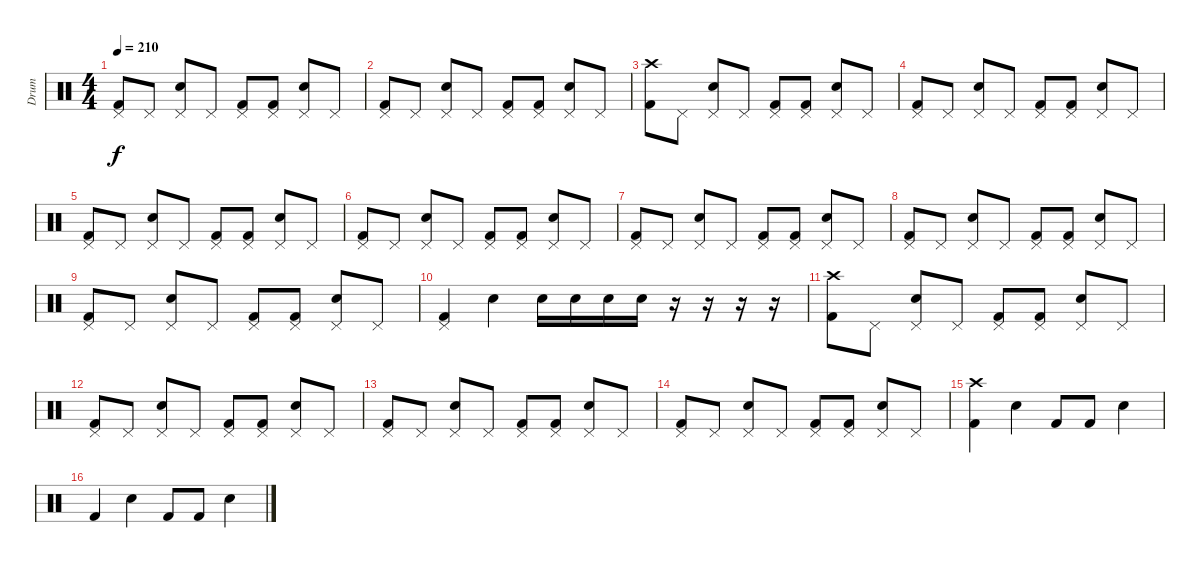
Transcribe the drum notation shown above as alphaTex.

\track ("Drum" "Drum") {instrument percussion}
\staff {score}
\articulation defaults
\ts (4 4)
\tempo 210
\clef neutral
\ks c
("Pedal Hi-Hat (hit)" "Kick (hit) 2").8{dy f} "Pedal Hi-Hat (hit)".8 ("Pedal Hi-Hat (hit)" "Snare (hit) 2").8 "Pedal Hi-Hat (hit)".8 ("Pedal Hi-Hat (hit)" "Kick (hit) 2").8 ("Pedal Hi-Hat (hit)" "Kick (hit) 2").8 ("Pedal Hi-Hat (hit)" "Snare (hit) 2").8 "Pedal Hi-Hat (hit)".8 |
("Pedal Hi-Hat (hit)" "Kick (hit) 2").8 "Pedal Hi-Hat (hit)".8 ("Pedal Hi-Hat (hit)" "Snare (hit) 2").8 "Pedal Hi-Hat (hit)".8 ("Pedal Hi-Hat (hit)" "Kick (hit) 2").8 ("Pedal Hi-Hat (hit)" "Kick (hit) 2").8 ("Pedal Hi-Hat (hit)" "Snare (hit) 2").8 "Pedal Hi-Hat (hit)".8 |
("Crash high (hit)" "Kick (hit) 2").8 "Pedal Hi-Hat (hit)".8 ("Pedal Hi-Hat (hit)" "Snare (hit) 2").8 "Pedal Hi-Hat (hit)".8 ("Pedal Hi-Hat (hit)" "Kick (hit) 2").8 ("Pedal Hi-Hat (hit)" "Kick (hit) 2").8 ("Pedal Hi-Hat (hit)" "Snare (hit) 2").8 "Pedal Hi-Hat (hit)".8 |
("Pedal Hi-Hat (hit)" "Kick (hit) 2").8 "Pedal Hi-Hat (hit)".8 ("Pedal Hi-Hat (hit)" "Snare (hit) 2").8 "Pedal Hi-Hat (hit)".8 ("Pedal Hi-Hat (hit)" "Kick (hit) 2").8 ("Pedal Hi-Hat (hit)" "Kick (hit) 2").8 ("Pedal Hi-Hat (hit)" "Snare (hit) 2").8 "Pedal Hi-Hat (hit)".8 |
("Pedal Hi-Hat (hit)" "Kick (hit) 2").8 "Pedal Hi-Hat (hit)".8 ("Pedal Hi-Hat (hit)" "Snare (hit) 2").8 "Pedal Hi-Hat (hit)".8 ("Pedal Hi-Hat (hit)" "Kick (hit) 2").8 ("Pedal Hi-Hat (hit)" "Kick (hit) 2").8 ("Pedal Hi-Hat (hit)" "Snare (hit) 2").8 "Pedal Hi-Hat (hit)".8 |
("Pedal Hi-Hat (hit)" "Kick (hit) 2").8 "Pedal Hi-Hat (hit)".8 ("Pedal Hi-Hat (hit)" "Snare (hit) 2").8 "Pedal Hi-Hat (hit)".8 ("Pedal Hi-Hat (hit)" "Kick (hit) 2").8 ("Pedal Hi-Hat (hit)" "Kick (hit) 2").8 ("Pedal Hi-Hat (hit)" "Snare (hit) 2").8 "Pedal Hi-Hat (hit)".8 |
("Pedal Hi-Hat (hit)" "Kick (hit) 2").8 "Pedal Hi-Hat (hit)".8 ("Pedal Hi-Hat (hit)" "Snare (hit) 2").8 "Pedal Hi-Hat (hit)".8 ("Pedal Hi-Hat (hit)" "Kick (hit) 2").8 ("Pedal Hi-Hat (hit)" "Kick (hit) 2").8 ("Pedal Hi-Hat (hit)" "Snare (hit) 2").8 "Pedal Hi-Hat (hit)".8 |
("Pedal Hi-Hat (hit)" "Kick (hit) 2").8 "Pedal Hi-Hat (hit)".8 ("Pedal Hi-Hat (hit)" "Snare (hit) 2").8 "Pedal Hi-Hat (hit)".8 ("Pedal Hi-Hat (hit)" "Kick (hit) 2").8 ("Pedal Hi-Hat (hit)" "Kick (hit) 2").8 ("Pedal Hi-Hat (hit)" "Snare (hit) 2").8 "Pedal Hi-Hat (hit)".8 |
("Pedal Hi-Hat (hit)" "Kick (hit) 2").8 "Pedal Hi-Hat (hit)".8 ("Pedal Hi-Hat (hit)" "Snare (hit) 2").8 "Pedal Hi-Hat (hit)".8 ("Pedal Hi-Hat (hit)" "Kick (hit) 2").8 ("Pedal Hi-Hat (hit)" "Kick (hit) 2").8 ("Pedal Hi-Hat (hit)" "Snare (hit) 2").8 "Pedal Hi-Hat (hit)".8 |
("Pedal Hi-Hat (hit)" "Kick (hit) 2").4 "Snare (hit) 2".4 "Snare (hit) 2".16 "Snare (hit) 2".16 "Snare (hit) 2".16 "Snare (hit) 2".16 r.16 r.16 r.16 r.16 |
("Crash high (hit)" "Kick (hit) 2").8 "Pedal Hi-Hat (hit)".8 ("Pedal Hi-Hat (hit)" "Snare (hit) 2").8 "Pedal Hi-Hat (hit)".8 ("Pedal Hi-Hat (hit)" "Kick (hit) 2").8 ("Pedal Hi-Hat (hit)" "Kick (hit) 2").8 ("Pedal Hi-Hat (hit)" "Snare (hit) 2").8 "Pedal Hi-Hat (hit)".8 |
("Pedal Hi-Hat (hit)" "Kick (hit) 2").8 "Pedal Hi-Hat (hit)".8 ("Pedal Hi-Hat (hit)" "Snare (hit) 2").8 "Pedal Hi-Hat (hit)".8 ("Pedal Hi-Hat (hit)" "Kick (hit) 2").8 ("Pedal Hi-Hat (hit)" "Kick (hit) 2").8 ("Pedal Hi-Hat (hit)" "Snare (hit) 2").8 "Pedal Hi-Hat (hit)".8 |
("Pedal Hi-Hat (hit)" "Kick (hit) 2").8 "Pedal Hi-Hat (hit)".8 ("Pedal Hi-Hat (hit)" "Snare (hit) 2").8 "Pedal Hi-Hat (hit)".8 ("Pedal Hi-Hat (hit)" "Kick (hit) 2").8 ("Pedal Hi-Hat (hit)" "Kick (hit) 2").8 ("Pedal Hi-Hat (hit)" "Snare (hit) 2").8 "Pedal Hi-Hat (hit)".8 |
("Pedal Hi-Hat (hit)" "Kick (hit) 2").8 "Pedal Hi-Hat (hit)".8 ("Pedal Hi-Hat (hit)" "Snare (hit) 2").8 "Pedal Hi-Hat (hit)".8 ("Pedal Hi-Hat (hit)" "Kick (hit) 2").8 ("Pedal Hi-Hat (hit)" "Kick (hit) 2").8 ("Pedal Hi-Hat (hit)" "Snare (hit) 2").8 "Pedal Hi-Hat (hit)".8 |
("Crash high (hit)" "Kick (hit) 2").4 "Snare (hit) 2".4 "Kick (hit) 2".8 "Kick (hit) 2".8 "Snare (hit) 2".4 |
"Kick (hit) 2".4 "Snare (hit) 2".4 "Kick (hit) 2".8 "Kick (hit) 2".8 "Snare (hit) 2".4
